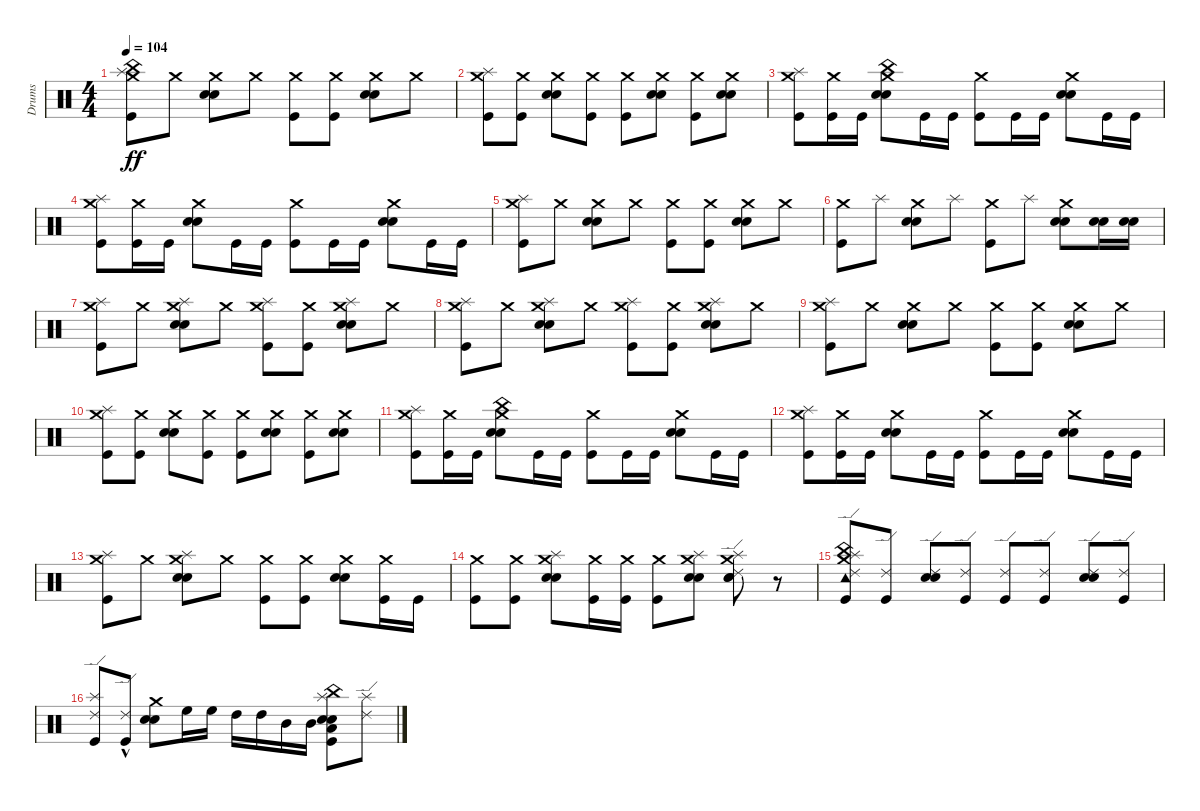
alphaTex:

\track ("Drums" "Drums") {instrument percussion}
\staff {score}
\articulation defaults
\ts (4 4)
\tempo 104
\clef neutral
\ks c
("Kick (hit)" "China (hit)" "Splash (hit)" "Crash medium (hit)").8{dy ff} "Crash medium (hit)".8 ("Snare (hit) 2" "Electric Snare (hit)" "Crash medium (hit)").8 "Crash medium (hit)".8 ("Kick (hit)" "Crash medium (hit)").8 ("Kick (hit)" "Crash medium (hit)").8 ("Snare (hit) 2" "Electric Snare (hit)" "Crash medium (hit)").8 "Crash medium (hit)".8 |
("Kick (hit)" "Splash (hit)" "Crash medium (hit)").8 ("Kick (hit)" "Crash medium (hit)").8 ("Snare (hit) 2" "Electric Snare (hit)" "Crash medium (hit)").8 ("Kick (hit)" "Crash medium (hit)").8 ("Kick (hit)" "Crash medium (hit)").8 ("Snare (hit) 2" "Electric Snare (hit)" "Crash medium (hit)").8 ("Kick (hit)" "Crash medium (hit)").8 ("Snare (hit) 2" "Electric Snare (hit)" "Crash medium (hit)").8 |
("Kick (hit)" "Splash (hit)" "Crash medium (hit)").8 ("Kick (hit)" "Crash medium (hit)").16 "Kick (hit)".16 ("Snare (hit) 2" "Electric Snare (hit)" "China (hit)" "Crash medium (hit)").8 "Kick (hit)".16 "Kick (hit)".16 ("Kick (hit)" "Crash medium (hit)").8 "Kick (hit)".16 "Kick (hit)".16 ("Snare (hit) 2" "Electric Snare (hit)" "Crash medium (hit)").8 "Kick (hit)".16 "Kick (hit)".16 |
("Kick (hit)" "Splash (hit)" "Crash medium (hit)").8 ("Kick (hit)" "Crash medium (hit)").16 "Kick (hit)".16 ("Snare (hit) 2" "Electric Snare (hit)" "Crash medium (hit)").8 "Kick (hit)".16 "Kick (hit)".16 ("Kick (hit)" "Crash medium (hit)").8 "Kick (hit)".16 "Kick (hit)".16 ("Snare (hit) 2" "Electric Snare (hit)" "Crash medium (hit)").8 "Kick (hit)".16 "Kick (hit)".16 |
("Kick (hit)" "Splash (hit)" "Crash medium (hit)").8 "Crash medium (hit)".8 ("Snare (hit) 2" "Electric Snare (hit)" "Crash medium (hit)").8 "Crash medium (hit)".8 ("Kick (hit)" "Crash medium (hit)").8 ("Kick (hit)" "Crash medium (hit)").8 ("Snare (hit) 2" "Electric Snare (hit)" "Crash medium (hit)").8 "Crash medium (hit)".8 |
("Kick (hit)" "Crash medium (hit)").8 "Splash (hit)".8 ("Snare (hit) 2" "Electric Snare (hit)" "Crash medium (hit)").8 "Splash (hit)".8 ("Kick (hit)" "Crash medium (hit)").8 "Splash (hit)".8 ("Snare (hit) 2" "Electric Snare (hit)" "Crash medium (hit)").8 ("Snare (hit) 2" "Electric Snare (hit)").16 ("Snare (hit) 2" "Electric Snare (hit)").16 |
("Kick (hit)" "Splash (hit)" "Crash medium (hit)").8 "Crash medium (hit)".8 ("Snare (hit) 2" "Electric Snare (hit)" "Splash (hit)" "Crash medium (hit)").8 "Crash medium (hit)".8 ("Kick (hit)" "Splash (hit)" "Crash medium (hit)").8 ("Kick (hit)" "Crash medium (hit)").8 ("Snare (hit) 2" "Electric Snare (hit)" "Splash (hit)" "Crash medium (hit)").8 "Crash medium (hit)".8 |
("Kick (hit)" "Splash (hit)" "Crash medium (hit)").8 "Crash medium (hit)".8 ("Snare (hit) 2" "Electric Snare (hit)" "Splash (hit)" "Crash medium (hit)").8 "Crash medium (hit)".8 ("Kick (hit)" "Splash (hit)" "Crash medium (hit)").8 ("Kick (hit)" "Crash medium (hit)").8 ("Snare (hit) 2" "Electric Snare (hit)" "Splash (hit)" "Crash medium (hit)").8 "Crash medium (hit)".8 |
("Kick (hit)" "Splash (hit)" "Crash medium (hit)").8 "Crash medium (hit)".8 ("Snare (hit) 2" "Electric Snare (hit)" "Crash medium (hit)").8 "Crash medium (hit)".8 ("Kick (hit)" "Crash medium (hit)").8 ("Kick (hit)" "Crash medium (hit)").8 ("Snare (hit) 2" "Electric Snare (hit)" "Crash medium (hit)").8 "Crash medium (hit)".8 |
("Kick (hit)" "Splash (hit)" "Crash medium (hit)").8 ("Kick (hit)" "Crash medium (hit)").8 ("Snare (hit) 2" "Electric Snare (hit)" "Crash medium (hit)").8 ("Kick (hit)" "Crash medium (hit)").8 ("Kick (hit)" "Crash medium (hit)").8 ("Snare (hit) 2" "Electric Snare (hit)" "Crash medium (hit)").8 ("Kick (hit)" "Crash medium (hit)").8 ("Snare (hit) 2" "Electric Snare (hit)" "Crash medium (hit)").8 |
("Kick (hit)" "Splash (hit)" "Crash medium (hit)").8 ("Kick (hit)" "Crash medium (hit)").16 "Kick (hit)".16 ("Snare (hit) 2" "Electric Snare (hit)" "China (hit)" "Crash medium (hit)").8 "Kick (hit)".16 "Kick (hit)".16 ("Kick (hit)" "Crash medium (hit)").8 "Kick (hit)".16 "Kick (hit)".16 ("Snare (hit) 2" "Electric Snare (hit)" "Crash medium (hit)").8 "Kick (hit)".16 "Kick (hit)".16 |
("Kick (hit)" "Splash (hit)" "Crash medium (hit)").8 ("Kick (hit)" "Crash medium (hit)").16 "Kick (hit)".16 ("Snare (hit) 2" "Electric Snare (hit)" "Crash medium (hit)").8 "Kick (hit)".16 "Kick (hit)".16 ("Kick (hit)" "Crash medium (hit)").8 "Kick (hit)".16 "Kick (hit)".16 ("Snare (hit) 2" "Electric Snare (hit)" "Crash medium (hit)").8 "Kick (hit)".16 "Kick (hit)".16 |
("Kick (hit)" "Splash (hit)" "Crash medium (hit)").8 "Crash medium (hit)".8 ("Snare (hit) 2" "Electric Snare (hit)" "Splash (hit)" "Crash medium (hit)").8 "Crash medium (hit)".8 ("Kick (hit)" "Crash medium (hit)").8 ("Kick (hit)" "Crash medium (hit)").8 ("Snare (hit) 2" "Electric Snare (hit)" "Crash medium (hit)").8 ("Kick (hit)" "Crash medium (hit)").16 "Kick (hit)".16 |
("Kick (hit)" "Crash medium (hit)").8 ("Kick (hit)" "Crash medium (hit)").8 ("Snare (hit) 2" "Electric Snare (hit)" "Splash (hit)" "Crash medium (hit)").8 ("Kick (hit)" "Crash medium (hit)").16 ("Kick (hit)" "Crash medium (hit)").16 ("Kick (hit)" "Crash medium (hit)").8 ("Snare (hit) 2" "Electric Snare (hit)" "Splash (hit)" "Crash medium (hit)").8 ("Snare (hit) 2" "Electric Snare (hit)" "Splash (hit)" "Crash medium (hit)" "Ride (edge) 2").8 r.8 |
("Kick (hit)" "China (hit)" "Tambourine (hit)" "Splash (hit)" "Crash medium (hit)" "Ride (edge) 2").8 ("Kick (hit)" "Ride (edge) 2").8 ("Snare (hit) 2" "Electric Snare (hit)" "Ride (edge) 2").8 ("Kick (hit)" "Ride (edge) 2").8 ("Kick (hit)" "Ride (edge) 2").8 ("Kick (hit)" "Ride (edge) 2").8 ("Snare (hit) 2" "Electric Snare (hit)" "Ride (edge) 2").8 ("Kick (hit)" "Ride (edge) 2").8 |
("Kick (hit)" "Splash (hit)" "Ride (edge) 2").8 ("Kick (hit)" "Ride (edge) 2"{hac}).8 ("Snare (hit) 2" "Electric Snare (hit)" "Crash medium (hit)").8 "High Floor Tom (hit)".16 "High Floor Tom (hit)".16 "High Tom (hit)".16 "High Tom (hit)".16 "Mid Tom (hit)".16 "Mid Tom (hit)".16 ("Kick (hit)" "Snare (hit) 2" "Electric Snare (hit)" "Low Tom (hit)" "China (hit)" "Splash (hit)").8 ("Splash (hit)" "Ride (edge) 2").8
